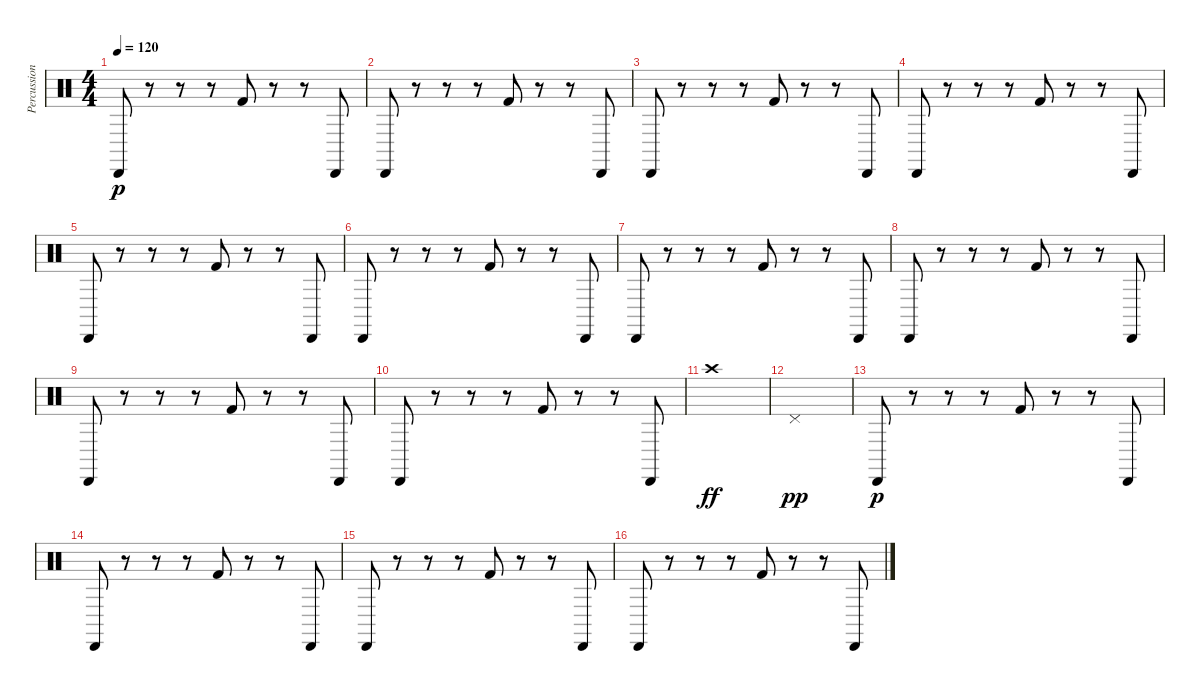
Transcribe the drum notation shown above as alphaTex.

\track ("Percussions" "Percussion") {instrument percussion}
\staff {score}
\articulation defaults
\ts (4 4)
\tempo 120
\clef neutral
\ks c "Cabasa (hit)".8{dy p}
r.8 r.8 r.8 "Kick (hit) 2".8 r.8 r.8 "Cabasa (hit)".8 |
"Cabasa (hit)".8 r.8 r.8 r.8 "Kick (hit) 2".8 r.8 r.8 "Cabasa (hit)".8 |
"Cabasa (hit)".8 r.8 r.8 r.8 "Kick (hit) 2".8 r.8 r.8 "Cabasa (hit)".8 |
"Cabasa (hit)".8 r.8 r.8 r.8 "Kick (hit) 2".8 r.8 r.8 "Cabasa (hit)".8 |
"Cabasa (hit)".8 r.8 r.8 r.8 "Kick (hit) 2".8 r.8 r.8 "Cabasa (hit)".8 |
"Cabasa (hit)".8 r.8 r.8 r.8 "Kick (hit) 2".8 r.8 r.8 "Cabasa (hit)".8 |
"Cabasa (hit)".8 r.8 r.8 r.8 "Kick (hit) 2".8 r.8 r.8 "Cabasa (hit)".8 |
"Cabasa (hit)".8 r.8 r.8 r.8 "Kick (hit) 2".8 r.8 r.8 "Cabasa (hit)".8 |
"Cabasa (hit)".8 r.8 r.8 r.8 "Kick (hit) 2".8 r.8 r.8 "Cabasa (hit)".8 |
"Cabasa (hit)".8 r.8 r.8 r.8 "Kick (hit) 2".8 r.8 r.8 "Cabasa (hit)".8 |
"Crash high (hit)".1{dy ff} |
"Pedal Hi-Hat (hit)".1{dy pp} |
"Cabasa (hit)".8{dy p} r.8 r.8 r.8 "Kick (hit) 2".8 r.8 r.8 "Cabasa (hit)".8 |
"Cabasa (hit)".8 r.8 r.8 r.8 "Kick (hit) 2".8 r.8 r.8 "Cabasa (hit)".8 |
"Cabasa (hit)".8 r.8 r.8 r.8 "Kick (hit) 2".8 r.8 r.8 "Cabasa (hit)".8 |
"Cabasa (hit)".8 r.8 r.8 r.8 "Kick (hit) 2".8 r.8 r.8 "Cabasa (hit)".8
